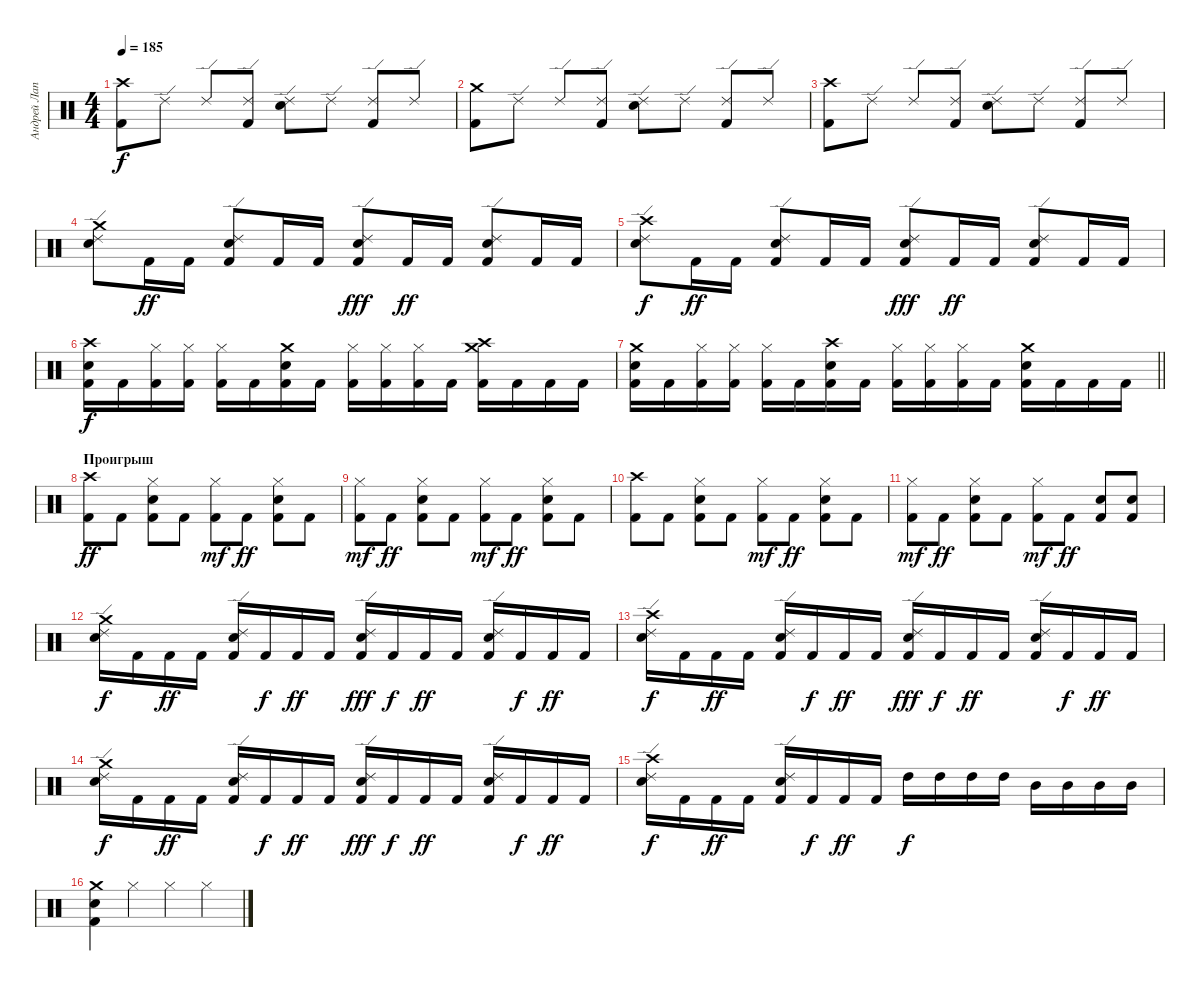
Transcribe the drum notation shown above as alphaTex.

\track ("Андрей Лаптев" "Андрей Лап") {instrument percussion}
\staff {score}
\articulation defaults
\ts (4 4)
\tempo 185
\clef neutral
\ks c
("Kick (hit) 2" "Crash high (hit)").8{dy f} "Ride (edge) 2".8 "Ride (edge) 2".8 ("Ride (edge) 2" "Kick (hit) 2").8 ("Ride (edge) 2" "Electric Snare (hit)").8 "Ride (edge) 2".8 ("Ride (edge) 2" "Kick (hit) 2").8 "Ride (edge) 2".8 |
("Crash medium (hit)" "Kick (hit) 2").8 "Ride (edge) 2".8 "Ride (edge) 2".8 ("Ride (edge) 2" "Kick (hit) 2").8 ("Ride (edge) 2" "Electric Snare (hit)").8 "Ride (edge) 2".8 ("Ride (edge) 2" "Kick (hit) 2").8 "Ride (edge) 2".8 |
("Kick (hit) 2" "Crash high (hit)").8 "Ride (edge) 2".8 "Ride (edge) 2".8 ("Ride (edge) 2" "Kick (hit) 2").8 ("Ride (edge) 2" "Electric Snare (hit)").8 "Ride (edge) 2".8 ("Ride (edge) 2" "Kick (hit) 2").8 "Ride (edge) 2".8 |
("Ride (edge) 2" "Crash medium (hit)" "Electric Snare (hit)").8 "Kick (hit) 2".16{dy ff} "Kick (hit) 2".16 ("Kick (hit) 2" "Electric Snare (hit)" "Ride (edge) 2").8 "Kick (hit) 2".16 "Kick (hit) 2".16 ("Kick (hit) 2" "Ride (edge) 2" "Electric Snare (hit)").8{dy fff} "Kick (hit) 2".16{dy ff} "Kick (hit) 2".16 ("Ride (edge) 2" "Electric Snare (hit)" "Kick (hit) 2").8 "Kick (hit) 2".16 "Kick (hit) 2".16 |
("Ride (edge) 2" "Crash high (hit)" "Electric Snare (hit)").8{dy f} "Kick (hit) 2".16{dy ff} "Kick (hit) 2".16 ("Kick (hit) 2" "Electric Snare (hit)" "Ride (edge) 2").8 "Kick (hit) 2".16 "Kick (hit) 2".16 ("Kick (hit) 2" "Ride (edge) 2" "Electric Snare (hit)").8{dy fff} "Kick (hit) 2".16{dy ff} "Kick (hit) 2".16 ("Ride (edge) 2" "Electric Snare (hit)" "Kick (hit) 2").8 "Kick (hit) 2".16 "Kick (hit) 2".16 |
("Kick (hit) 2" "Crash high (hit)" "Electric Snare (hit)").16{dy f} "Kick (hit) 2".16 ("Kick (hit) 2" "Hi-Hat (closed)").16 ("Kick (hit) 2" "Hi-Hat (closed)").16 ("Kick (hit) 2" "Hi-Hat (closed)").16 "Kick (hit) 2".16 ("Kick (hit) 2" "Crash medium (hit)" "Electric Snare (hit)").16 "Kick (hit) 2".16 ("Kick (hit) 2" "Hi-Hat (closed)").16 ("Kick (hit) 2" "Hi-Hat (closed)").16 ("Kick (hit) 2" "Hi-Hat (closed)").16 "Kick (hit) 2".16 ("Kick (hit) 2" "Crash high (hit)" "Crash medium (hit)").16 "Kick (hit) 2".16 "Kick (hit) 2".16 "Kick (hit) 2".16 |
\barLineRight lightlight
("Kick (hit) 2" "Crash medium (hit)" "Electric Snare (hit)").16 "Kick (hit) 2".16 ("Kick (hit) 2" "Hi-Hat (closed)").16 ("Kick (hit) 2" "Hi-Hat (closed)").16 ("Kick (hit) 2" "Hi-Hat (closed)").16 "Kick (hit) 2".16 ("Kick (hit) 2" "Crash high (hit)" "Electric Snare (hit)").16 "Kick (hit) 2".16 ("Kick (hit) 2" "Hi-Hat (closed)").16 ("Kick (hit) 2" "Hi-Hat (closed)").16 ("Kick (hit) 2" "Hi-Hat (closed)").16 "Kick (hit) 2".16 ("Kick (hit) 2" "Electric Snare (hit)" "Crash medium (hit)").16 "Kick (hit) 2".16 "Kick (hit) 2".16 "Kick (hit) 2".16 |
\section ("" "Проигрыш")
("Crash high (hit)" "Kick (hit) 2").8{dy ff} "Kick (hit) 2".8 ("Hi-Hat (closed)" "Electric Snare (hit)" "Kick (hit) 2").8 "Kick (hit) 2".8 ("Kick (hit) 2" "Hi-Hat (closed)").8{dy mf} "Kick (hit) 2".8{dy ff} ("Electric Snare (hit)" "Hi-Hat (closed)" "Kick (hit) 2").8 "Kick (hit) 2".8 |
("Kick (hit) 2" "Hi-Hat (closed)").8{dy mf} "Kick (hit) 2".8{dy ff} ("Electric Snare (hit)" "Hi-Hat (closed)" "Kick (hit) 2").8 "Kick (hit) 2".8 ("Kick (hit) 2" "Hi-Hat (closed)").8{dy mf} "Kick (hit) 2".8{dy ff} ("Hi-Hat (closed)" "Electric Snare (hit)" "Kick (hit) 2").8 "Kick (hit) 2".8 |
("Crash high (hit)" "Kick (hit) 2").8 "Kick (hit) 2".8 ("Hi-Hat (closed)" "Electric Snare (hit)" "Kick (hit) 2").8 "Kick (hit) 2".8 ("Kick (hit) 2" "Hi-Hat (closed)").8{dy mf} "Kick (hit) 2".8{dy ff} ("Electric Snare (hit)" "Hi-Hat (closed)" "Kick (hit) 2").8 "Kick (hit) 2".8 |
("Kick (hit) 2" "Hi-Hat (closed)").8{dy mf} "Kick (hit) 2".8{dy ff} ("Electric Snare (hit)" "Hi-Hat (closed)" "Kick (hit) 2").8 "Kick (hit) 2".8 ("Kick (hit) 2" "Hi-Hat (closed)").8{dy mf} "Kick (hit) 2".8{dy ff} ("Electric Snare (hit)" "Kick (hit) 2").8 ("Kick (hit) 2" "Electric Snare (hit)").8 |
("Ride (edge) 2" "Crash medium (hit)" "Electric Snare (hit)").16{dy f} "Kick (hit) 2".16 "Kick (hit) 2".16{dy ff} "Kick (hit) 2".16 ("Kick (hit) 2" "Electric Snare (hit)" "Ride (edge) 2").16 "Kick (hit) 2".16{dy f} "Kick (hit) 2".16{dy ff} "Kick (hit) 2".16 ("Kick (hit) 2" "Ride (edge) 2" "Electric Snare (hit)").16{dy fff} "Kick (hit) 2".16{dy f} "Kick (hit) 2".16{dy ff} "Kick (hit) 2".16 ("Ride (edge) 2" "Electric Snare (hit)" "Kick (hit) 2").16 "Kick (hit) 2".16{dy f} "Kick (hit) 2".16{dy ff} "Kick (hit) 2".16 |
("Ride (edge) 2" "Crash high (hit)" "Electric Snare (hit)").16{dy f} "Kick (hit) 2".16 "Kick (hit) 2".16{dy ff} "Kick (hit) 2".16 ("Kick (hit) 2" "Electric Snare (hit)" "Ride (edge) 2").16 "Kick (hit) 2".16{dy f} "Kick (hit) 2".16{dy ff} "Kick (hit) 2".16 ("Kick (hit) 2" "Ride (edge) 2" "Electric Snare (hit)").16{dy fff} "Kick (hit) 2".16{dy f} "Kick (hit) 2".16{dy ff} "Kick (hit) 2".16 ("Ride (edge) 2" "Electric Snare (hit)" "Kick (hit) 2").16 "Kick (hit) 2".16{dy f} "Kick (hit) 2".16{dy ff} "Kick (hit) 2".16 |
("Ride (edge) 2" "Crash medium (hit)" "Electric Snare (hit)").16{dy f} "Kick (hit) 2".16 "Kick (hit) 2".16{dy ff} "Kick (hit) 2".16 ("Kick (hit) 2" "Electric Snare (hit)" "Ride (edge) 2").16 "Kick (hit) 2".16{dy f} "Kick (hit) 2".16{dy ff} "Kick (hit) 2".16 ("Kick (hit) 2" "Ride (edge) 2" "Electric Snare (hit)").16{dy fff} "Kick (hit) 2".16{dy f} "Kick (hit) 2".16{dy ff} "Kick (hit) 2".16 ("Ride (edge) 2" "Electric Snare (hit)" "Kick (hit) 2").16 "Kick (hit) 2".16{dy f} "Kick (hit) 2".16{dy ff} "Kick (hit) 2".16 |
("Ride (edge) 2" "Crash high (hit)" "Electric Snare (hit)").16{dy f} "Kick (hit) 2".16 "Kick (hit) 2".16{dy ff} "Kick (hit) 2".16 ("Kick (hit) 2" "Electric Snare (hit)" "Ride (edge) 2").16 "Kick (hit) 2".16{dy f} "Kick (hit) 2".16{dy ff} "Kick (hit) 2".16 "High Tom (hit)".16{dy f} "High Tom (hit)".16 "High Tom (hit)".16 "High Tom (hit)".16 "Mid Tom (hit)".16 "Mid Tom (hit)".16 "Mid Tom (hit)".16 "Mid Tom (hit)".16 |
("Electric Snare (hit)" "Crash medium (hit)" "Kick (hit) 2").4 "Hi-Hat (closed)".4 "Hi-Hat (closed)".4 "Hi-Hat (closed)".4
